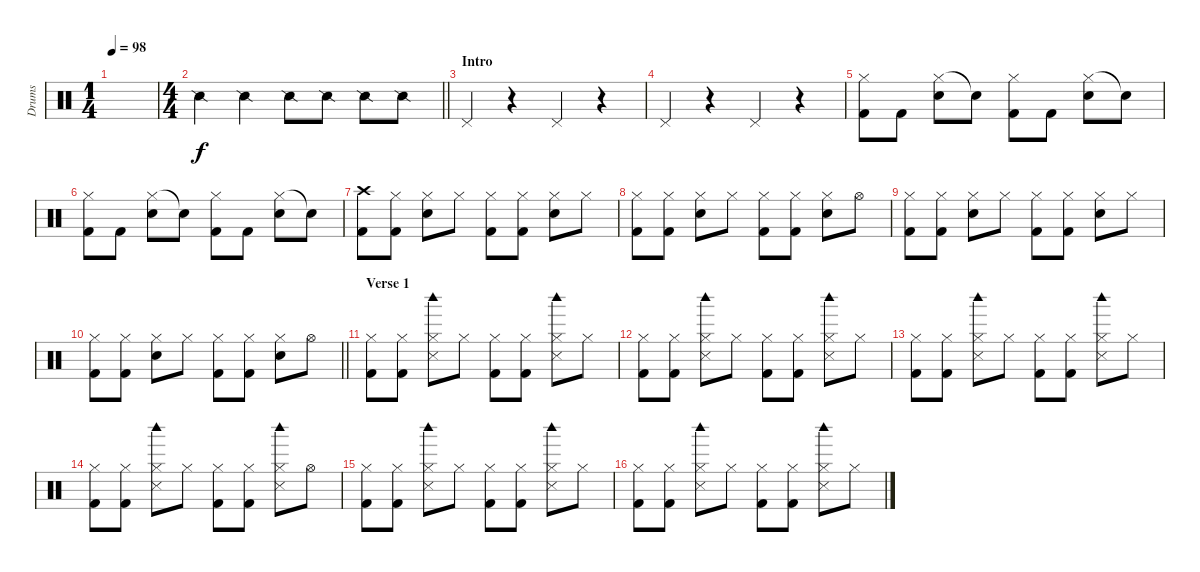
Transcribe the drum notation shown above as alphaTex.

\track ("Drums" "Drums") {instrument percussion}
\staff {score}
\articulation defaults
\ts (1 4)
\tempo 98
\clef neutral
\ks c
|
\ts (4 4)
\barLineRight lightlight "Snare (side stick) 2".4 "Snare (side stick) 2".4 "Snare (side stick) 2".8 "Snare (side stick) 2".8 "Snare (side stick) 2".8 "Snare (side stick) 2".8
|
\section ("" "Intro")
"Pedal Hi-Hat (hit)".4 r.4 "Pedal Hi-Hat (hit)".4 r.4 |
"Pedal Hi-Hat (hit)".4 r.4 "Pedal Hi-Hat (hit)".4 r.4 |
("Hi-Hat (closed)" "Kick (hit) 2").8 "Kick (hit) 2".8 ("Hi-Hat (closed)" "Snare (hit) 2").8 "Snare (hit)"{t}.8 ("Hi-Hat (closed)" "Kick (hit) 2").8 "Kick (hit) 2".8 ("Hi-Hat (closed)" "Snare (hit) 2").8 "Snare (hit)"{t}.8 |
("Hi-Hat (closed)" "Kick (hit) 2").8 "Kick (hit) 2".8 ("Hi-Hat (closed)" "Snare (hit) 2").8 "Snare (hit)"{t}.8 ("Hi-Hat (closed)" "Kick (hit) 2").8 "Kick (hit) 2".8 ("Hi-Hat (closed)" "Snare (hit) 2").8 "Snare (hit)"{t}.8 |
("Crash high (hit)" "Kick (hit) 2").8 ("Hi-Hat (closed)" "Kick (hit) 2").8 ("Hi-Hat (closed)" "Snare (hit) 2").8 "Hi-Hat (closed)".8 ("Hi-Hat (closed)" "Kick (hit) 2").8 ("Hi-Hat (closed)" "Kick (hit) 2").8 ("Hi-Hat (closed)" "Snare (hit) 2").8 "Hi-Hat (closed)".8 |
("Hi-Hat (closed)" "Kick (hit) 2").8 ("Hi-Hat (closed)" "Kick (hit) 2").8 ("Hi-Hat (closed)" "Snare (hit) 2").8 "Hi-Hat (closed)".8 ("Hi-Hat (closed)" "Kick (hit) 2").8 ("Hi-Hat (closed)" "Kick (hit) 2").8 ("Hi-Hat (closed)" "Snare (hit) 2").8 "Hi-Hat (open)".8 |
("Hi-Hat (closed)" "Kick (hit) 2").8 ("Hi-Hat (closed)" "Kick (hit) 2").8 ("Hi-Hat (closed)" "Snare (hit) 2").8 "Hi-Hat (closed)".8 ("Hi-Hat (closed)" "Kick (hit) 2").8 ("Hi-Hat (closed)" "Kick (hit) 2").8 ("Hi-Hat (closed)" "Snare (hit) 2").8 "Hi-Hat (closed)".8 |
\barLineRight lightlight
("Hi-Hat (closed)" "Kick (hit) 2").8 ("Hi-Hat (closed)" "Kick (hit) 2").8 ("Hi-Hat (closed)" "Snare (hit) 2").8 "Hi-Hat (closed)".8 ("Hi-Hat (closed)" "Kick (hit) 2").8 ("Hi-Hat (closed)" "Kick (hit) 2").8 ("Hi-Hat (closed)" "Snare (hit) 2").8 "Hi-Hat (open)".8 |
\section ("" "Verse 1")
("Hi-Hat (closed)" "Kick (hit) 2").8 ("Hi-Hat (closed)" "Kick (hit) 2").8 ("Hi-Hat (closed)" "Metronome (hit)" "Woodblock high (hit)").8 "Hi-Hat (closed)".8 ("Hi-Hat (closed)" "Kick (hit) 2").8 ("Hi-Hat (closed)" "Kick (hit) 2").8 ("Hi-Hat (closed)" "Metronome (hit)" "Woodblock high (hit)").8 "Hi-Hat (closed)".8 |
("Hi-Hat (closed)" "Kick (hit) 2").8 ("Hi-Hat (closed)" "Kick (hit) 2").8 ("Hi-Hat (closed)" "Metronome (hit)" "Woodblock high (hit)").8 "Hi-Hat (closed)".8 ("Hi-Hat (closed)" "Kick (hit) 2").8 ("Hi-Hat (closed)" "Kick (hit) 2").8 ("Hi-Hat (closed)" "Metronome (hit)" "Woodblock high (hit)").8 "Hi-Hat (closed)".8 |
("Hi-Hat (closed)" "Kick (hit) 2").8 ("Hi-Hat (closed)" "Kick (hit) 2").8 ("Hi-Hat (closed)" "Metronome (hit)" "Woodblock high (hit)").8 "Hi-Hat (closed)".8 ("Hi-Hat (closed)" "Kick (hit) 2").8 ("Hi-Hat (closed)" "Kick (hit) 2").8 ("Hi-Hat (closed)" "Metronome (hit)" "Woodblock high (hit)").8 "Hi-Hat (closed)".8 |
("Hi-Hat (closed)" "Kick (hit) 2").8 ("Hi-Hat (closed)" "Kick (hit) 2").8 ("Hi-Hat (closed)" "Metronome (hit)" "Woodblock high (hit)").8 "Hi-Hat (closed)".8 ("Hi-Hat (closed)" "Kick (hit) 2").8 ("Hi-Hat (closed)" "Kick (hit) 2").8 ("Hi-Hat (closed)" "Metronome (hit)" "Woodblock high (hit)").8 "Hi-Hat (open)".8 |
("Hi-Hat (closed)" "Kick (hit) 2").8 ("Hi-Hat (closed)" "Kick (hit) 2").8 ("Hi-Hat (closed)" "Metronome (hit)" "Woodblock high (hit)").8 "Hi-Hat (closed)".8 ("Hi-Hat (closed)" "Kick (hit) 2").8 ("Hi-Hat (closed)" "Kick (hit) 2").8 ("Hi-Hat (closed)" "Metronome (hit)" "Woodblock high (hit)").8 "Hi-Hat (closed)".8 |
("Hi-Hat (closed)" "Kick (hit) 2").8 ("Hi-Hat (closed)" "Kick (hit) 2").8 ("Hi-Hat (closed)" "Metronome (hit)" "Woodblock high (hit)").8 "Hi-Hat (closed)".8 ("Hi-Hat (closed)" "Kick (hit) 2").8 ("Hi-Hat (closed)" "Kick (hit) 2").8 ("Hi-Hat (closed)" "Metronome (hit)" "Woodblock high (hit)").8 "Hi-Hat (closed)".8
